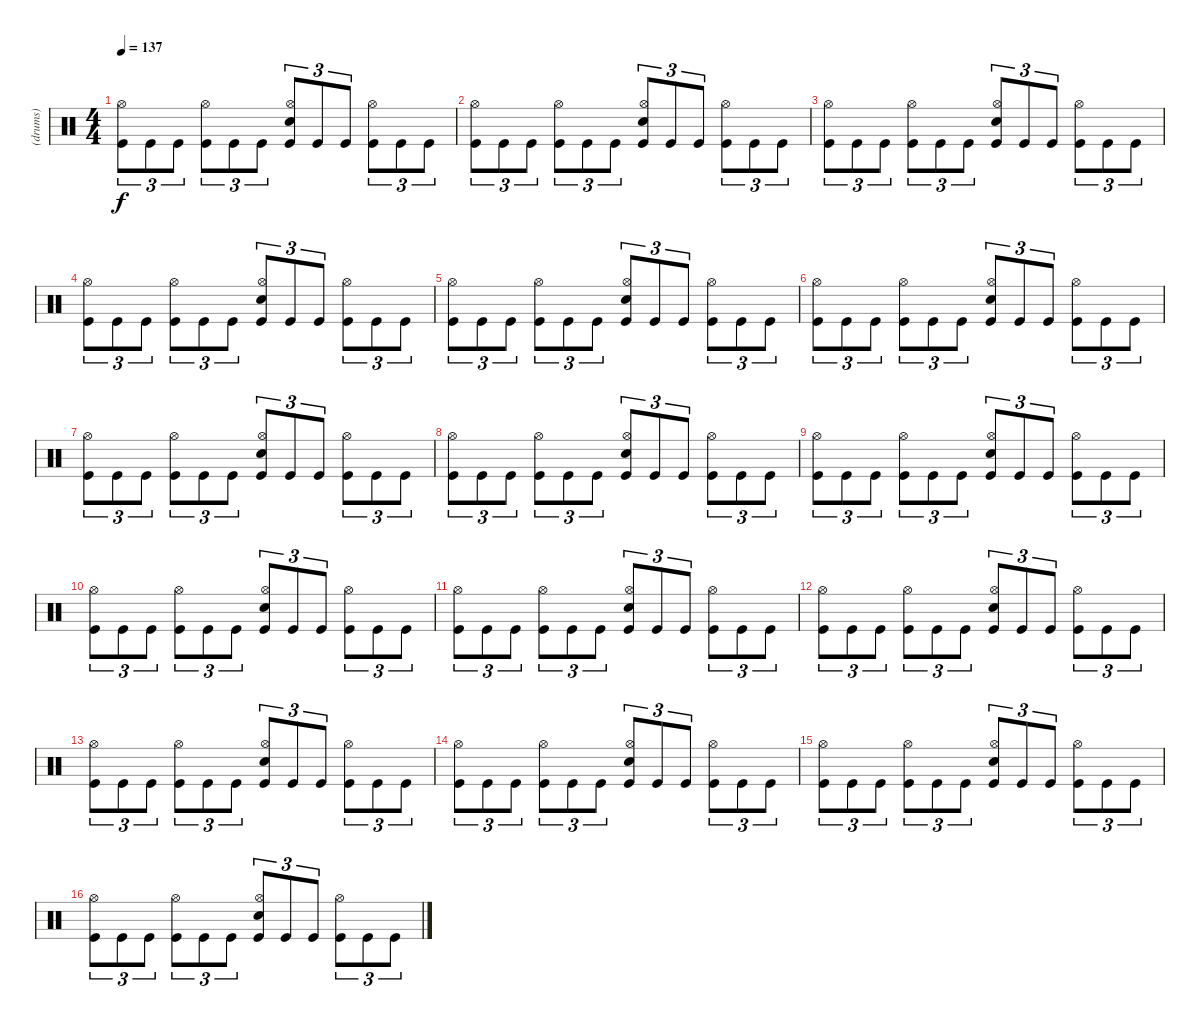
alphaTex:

\track ("(drums)" "(drums)") {instrument percussion}
\staff {score}
\articulation defaults
\ts (4 4)
\tempo 137
\clef neutral
\ks c
("Kick (hit)" "Hi-Hat (open)").8{tu (3 2) dy f volume 12 balance 6} "Kick (hit)".8{tu (3 2)} "Kick (hit)".8{tu (3 2)} ("Kick (hit)" "Hi-Hat (open)").8{tu (3 2)} "Kick (hit)".8{tu (3 2)} "Kick (hit)".8{tu (3 2)} ("Kick (hit)" "Snare (hit) 2" "Hi-Hat (open)").8{tu (3 2)} "Kick (hit)".8{tu (3 2)} "Kick (hit)".8{tu (3 2)} ("Kick (hit)" "Hi-Hat (open)").8{tu (3 2)} "Kick (hit)".8{tu (3 2)} "Kick (hit)".8{tu (3 2)} |
("Kick (hit)" "Hi-Hat (open)").8{tu (3 2)} "Kick (hit)".8{tu (3 2)} "Kick (hit)".8{tu (3 2)} ("Kick (hit)" "Hi-Hat (open)").8{tu (3 2)} "Kick (hit)".8{tu (3 2)} "Kick (hit)".8{tu (3 2)} ("Kick (hit)" "Snare (hit) 2" "Hi-Hat (open)").8{tu (3 2)} "Kick (hit)".8{tu (3 2)} "Kick (hit)".8{tu (3 2)} ("Kick (hit)" "Hi-Hat (open)").8{tu (3 2)} "Kick (hit)".8{tu (3 2)} "Kick (hit)".8{tu (3 2)} |
("Kick (hit)" "Hi-Hat (open)").8{tu (3 2)} "Kick (hit)".8{tu (3 2)} "Kick (hit)".8{tu (3 2)} ("Kick (hit)" "Hi-Hat (open)").8{tu (3 2)} "Kick (hit)".8{tu (3 2)} "Kick (hit)".8{tu (3 2)} ("Kick (hit)" "Snare (hit) 2" "Hi-Hat (open)").8{tu (3 2)} "Kick (hit)".8{tu (3 2)} "Kick (hit)".8{tu (3 2)} ("Kick (hit)" "Hi-Hat (open)").8{tu (3 2)} "Kick (hit)".8{tu (3 2)} "Kick (hit)".8{tu (3 2)} |
("Kick (hit)" "Hi-Hat (open)").8{tu (3 2)} "Kick (hit)".8{tu (3 2)} "Kick (hit)".8{tu (3 2)} ("Kick (hit)" "Hi-Hat (open)").8{tu (3 2)} "Kick (hit)".8{tu (3 2)} "Kick (hit)".8{tu (3 2)} ("Kick (hit)" "Snare (hit) 2" "Hi-Hat (open)").8{tu (3 2)} "Kick (hit)".8{tu (3 2)} "Kick (hit)".8{tu (3 2)} ("Kick (hit)" "Hi-Hat (open)").8{tu (3 2)} "Kick (hit)".8{tu (3 2)} "Kick (hit)".8{tu (3 2)} |
("Kick (hit)" "Hi-Hat (open)").8{tu (3 2)} "Kick (hit)".8{tu (3 2)} "Kick (hit)".8{tu (3 2)} ("Kick (hit)" "Hi-Hat (open)").8{tu (3 2)} "Kick (hit)".8{tu (3 2)} "Kick (hit)".8{tu (3 2)} ("Kick (hit)" "Snare (hit) 2" "Hi-Hat (open)").8{tu (3 2)} "Kick (hit)".8{tu (3 2)} "Kick (hit)".8{tu (3 2)} ("Kick (hit)" "Hi-Hat (open)").8{tu (3 2)} "Kick (hit)".8{tu (3 2)} "Kick (hit)".8{tu (3 2)} |
("Kick (hit)" "Hi-Hat (open)").8{tu (3 2)} "Kick (hit)".8{tu (3 2)} "Kick (hit)".8{tu (3 2)} ("Kick (hit)" "Hi-Hat (open)").8{tu (3 2)} "Kick (hit)".8{tu (3 2)} "Kick (hit)".8{tu (3 2)} ("Kick (hit)" "Snare (hit) 2" "Hi-Hat (open)").8{tu (3 2)} "Kick (hit)".8{tu (3 2)} "Kick (hit)".8{tu (3 2)} ("Kick (hit)" "Hi-Hat (open)").8{tu (3 2)} "Kick (hit)".8{tu (3 2)} "Kick (hit)".8{tu (3 2)} |
("Kick (hit)" "Hi-Hat (open)").8{tu (3 2)} "Kick (hit)".8{tu (3 2)} "Kick (hit)".8{tu (3 2)} ("Kick (hit)" "Hi-Hat (open)").8{tu (3 2)} "Kick (hit)".8{tu (3 2)} "Kick (hit)".8{tu (3 2)} ("Kick (hit)" "Snare (hit) 2" "Hi-Hat (open)").8{tu (3 2)} "Kick (hit)".8{tu (3 2)} "Kick (hit)".8{tu (3 2)} ("Kick (hit)" "Hi-Hat (open)").8{tu (3 2)} "Kick (hit)".8{tu (3 2)} "Kick (hit)".8{tu (3 2)} |
("Kick (hit)" "Hi-Hat (open)").8{tu (3 2)} "Kick (hit)".8{tu (3 2)} "Kick (hit)".8{tu (3 2)} ("Kick (hit)" "Hi-Hat (open)").8{tu (3 2)} "Kick (hit)".8{tu (3 2)} "Kick (hit)".8{tu (3 2)} ("Kick (hit)" "Snare (hit) 2" "Hi-Hat (open)").8{tu (3 2)} "Kick (hit)".8{tu (3 2)} "Kick (hit)".8{tu (3 2)} ("Kick (hit)" "Hi-Hat (open)").8{tu (3 2)} "Kick (hit)".8{tu (3 2)} "Kick (hit)".8{tu (3 2)} |
("Kick (hit)" "Hi-Hat (open)").8{tu (3 2)} "Kick (hit)".8{tu (3 2)} "Kick (hit)".8{tu (3 2)} ("Kick (hit)" "Hi-Hat (open)").8{tu (3 2)} "Kick (hit)".8{tu (3 2)} "Kick (hit)".8{tu (3 2)} ("Kick (hit)" "Snare (hit) 2" "Hi-Hat (open)").8{tu (3 2)} "Kick (hit)".8{tu (3 2)} "Kick (hit)".8{tu (3 2)} ("Kick (hit)" "Hi-Hat (open)").8{tu (3 2)} "Kick (hit)".8{tu (3 2)} "Kick (hit)".8{tu (3 2)} |
("Kick (hit)" "Hi-Hat (open)").8{tu (3 2)} "Kick (hit)".8{tu (3 2)} "Kick (hit)".8{tu (3 2)} ("Kick (hit)" "Hi-Hat (open)").8{tu (3 2)} "Kick (hit)".8{tu (3 2)} "Kick (hit)".8{tu (3 2)} ("Kick (hit)" "Snare (hit) 2" "Hi-Hat (open)").8{tu (3 2)} "Kick (hit)".8{tu (3 2)} "Kick (hit)".8{tu (3 2)} ("Kick (hit)" "Hi-Hat (open)").8{tu (3 2)} "Kick (hit)".8{tu (3 2)} "Kick (hit)".8{tu (3 2)} |
("Kick (hit)" "Hi-Hat (open)").8{tu (3 2)} "Kick (hit)".8{tu (3 2)} "Kick (hit)".8{tu (3 2)} ("Kick (hit)" "Hi-Hat (open)").8{tu (3 2)} "Kick (hit)".8{tu (3 2)} "Kick (hit)".8{tu (3 2)} ("Kick (hit)" "Snare (hit) 2" "Hi-Hat (open)").8{tu (3 2)} "Kick (hit)".8{tu (3 2)} "Kick (hit)".8{tu (3 2)} ("Kick (hit)" "Hi-Hat (open)").8{tu (3 2)} "Kick (hit)".8{tu (3 2)} "Kick (hit)".8{tu (3 2)} |
("Kick (hit)" "Hi-Hat (open)").8{tu (3 2)} "Kick (hit)".8{tu (3 2)} "Kick (hit)".8{tu (3 2)} ("Kick (hit)" "Hi-Hat (open)").8{tu (3 2)} "Kick (hit)".8{tu (3 2)} "Kick (hit)".8{tu (3 2)} ("Kick (hit)" "Snare (hit) 2" "Hi-Hat (open)").8{tu (3 2)} "Kick (hit)".8{tu (3 2)} "Kick (hit)".8{tu (3 2)} ("Kick (hit)" "Hi-Hat (open)").8{tu (3 2)} "Kick (hit)".8{tu (3 2)} "Kick (hit)".8{tu (3 2)} |
("Kick (hit)" "Hi-Hat (open)").8{tu (3 2)} "Kick (hit)".8{tu (3 2)} "Kick (hit)".8{tu (3 2)} ("Kick (hit)" "Hi-Hat (open)").8{tu (3 2)} "Kick (hit)".8{tu (3 2)} "Kick (hit)".8{tu (3 2)} ("Kick (hit)" "Snare (hit) 2" "Hi-Hat (open)").8{tu (3 2)} "Kick (hit)".8{tu (3 2)} "Kick (hit)".8{tu (3 2)} ("Kick (hit)" "Hi-Hat (open)").8{tu (3 2)} "Kick (hit)".8{tu (3 2)} "Kick (hit)".8{tu (3 2)} |
("Kick (hit)" "Hi-Hat (open)").8{tu (3 2)} "Kick (hit)".8{tu (3 2)} "Kick (hit)".8{tu (3 2)} ("Kick (hit)" "Hi-Hat (open)").8{tu (3 2)} "Kick (hit)".8{tu (3 2)} "Kick (hit)".8{tu (3 2)} ("Kick (hit)" "Snare (hit) 2" "Hi-Hat (open)").8{tu (3 2)} "Kick (hit)".8{tu (3 2)} "Kick (hit)".8{tu (3 2)} ("Kick (hit)" "Hi-Hat (open)").8{tu (3 2)} "Kick (hit)".8{tu (3 2)} "Kick (hit)".8{tu (3 2)} |
("Kick (hit)" "Hi-Hat (open)").8{tu (3 2)} "Kick (hit)".8{tu (3 2)} "Kick (hit)".8{tu (3 2)} ("Kick (hit)" "Hi-Hat (open)").8{tu (3 2)} "Kick (hit)".8{tu (3 2)} "Kick (hit)".8{tu (3 2)} ("Kick (hit)" "Snare (hit) 2" "Hi-Hat (open)").8{tu (3 2)} "Kick (hit)".8{tu (3 2)} "Kick (hit)".8{tu (3 2)} ("Kick (hit)" "Hi-Hat (open)").8{tu (3 2)} "Kick (hit)".8{tu (3 2)} "Kick (hit)".8{tu (3 2)} |
("Kick (hit)" "Hi-Hat (open)").8{tu (3 2)} "Kick (hit)".8{tu (3 2)} "Kick (hit)".8{tu (3 2)} ("Kick (hit)" "Hi-Hat (open)").8{tu (3 2)} "Kick (hit)".8{tu (3 2)} "Kick (hit)".8{tu (3 2)} ("Kick (hit)" "Snare (hit) 2" "Hi-Hat (open)").8{tu (3 2)} "Kick (hit)".8{tu (3 2)} "Kick (hit)".8{tu (3 2)} ("Kick (hit)" "Hi-Hat (open)").8{tu (3 2)} "Kick (hit)".8{tu (3 2)} "Kick (hit)".8{tu (3 2)}
